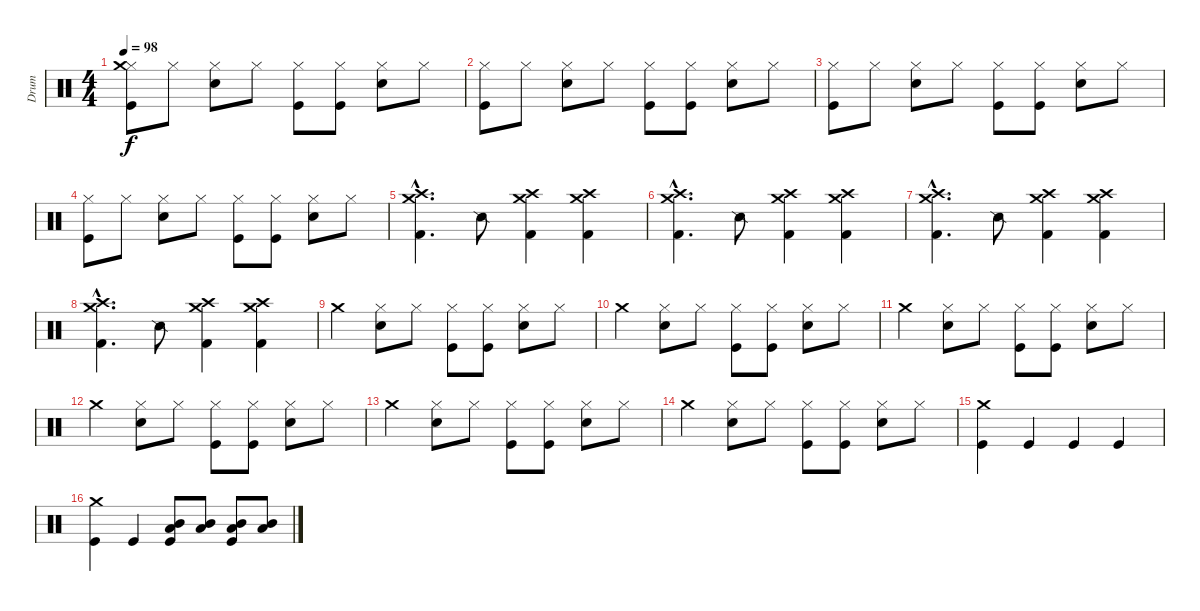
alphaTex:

\track ("Drum" "Drum") {instrument percussion}
\staff {score}
\articulation defaults
\ts (4 4)
\tempo 98
\clef neutral
\ks c
("Hi-Hat (closed)" "Kick (hit)" "Crash medium (hit)").8{dy f} "Hi-Hat (closed)".8 ("Hi-Hat (closed)" "Snare (hit) 2").8 "Hi-Hat (closed)".8 ("Hi-Hat (closed)" "Kick (hit)").8 ("Hi-Hat (closed)" "Kick (hit)").8 ("Hi-Hat (closed)" "Snare (hit) 2").8 "Hi-Hat (closed)".8 |
("Hi-Hat (closed)" "Kick (hit)").8 "Hi-Hat (closed)".8 ("Hi-Hat (closed)" "Snare (hit) 2").8 "Hi-Hat (closed)".8 ("Hi-Hat (closed)" "Kick (hit)").8 ("Hi-Hat (closed)" "Kick (hit)").8 ("Hi-Hat (closed)" "Snare (hit) 2").8 "Hi-Hat (closed)".8 |
("Hi-Hat (closed)" "Kick (hit)").8 "Hi-Hat (closed)".8 ("Hi-Hat (closed)" "Snare (hit) 2").8 "Hi-Hat (closed)".8 ("Hi-Hat (closed)" "Kick (hit)").8 ("Hi-Hat (closed)" "Kick (hit)").8 ("Hi-Hat (closed)" "Snare (hit) 2").8 "Hi-Hat (closed)".8 |
("Hi-Hat (closed)" "Kick (hit)").8 "Hi-Hat (closed)".8 ("Hi-Hat (closed)" "Snare (hit) 2").8 "Hi-Hat (closed)".8 ("Hi-Hat (closed)" "Kick (hit)").8 ("Hi-Hat (closed)" "Kick (hit)").8 ("Hi-Hat (closed)" "Snare (hit) 2").8 "Hi-Hat (closed)".8 |
("Crash medium (hit)"{hac} "Kick (hit) 2"{hac} "Crash high (hit)"{hac}).4{d} "Snare (side stick) 2".8 ("Crash medium (hit)" "Kick (hit) 2" "Crash high (hit)").4 ("Crash medium (hit)" "Kick (hit) 2" "Crash high (hit)").4 |
("Crash medium (hit)"{hac} "Kick (hit) 2"{hac} "Crash high (hit)"{hac}).4{d} "Snare (side stick) 2".8 ("Crash medium (hit)" "Kick (hit) 2" "Crash high (hit)").4 ("Crash medium (hit)" "Kick (hit) 2" "Crash high (hit)").4 |
("Crash medium (hit)"{hac} "Kick (hit) 2"{hac} "Crash high (hit)"{hac}).4{d} "Snare (side stick) 2".8 ("Crash medium (hit)" "Kick (hit) 2" "Crash high (hit)").4 ("Crash medium (hit)" "Kick (hit) 2" "Crash high (hit)").4 |
("Crash medium (hit)"{hac} "Kick (hit) 2"{hac} "Crash high (hit)"{hac}).4{d} "Snare (side stick) 2".8 ("Crash medium (hit)" "Kick (hit) 2" "Crash high (hit)").4 ("Crash medium (hit)" "Kick (hit) 2" "Crash high (hit)").4 |
"Crash medium (hit)".4 ("Hi-Hat (closed)" "Electric Snare (hit)").8 "Hi-Hat (closed)".8 ("Hi-Hat (closed)" "Kick (hit)").8 ("Hi-Hat (closed)" "Kick (hit)").8 ("Hi-Hat (closed)" "Electric Snare (hit)").8 "Hi-Hat (closed)".8 |
"Crash medium (hit)".4 ("Hi-Hat (closed)" "Electric Snare (hit)").8 "Hi-Hat (closed)".8 ("Hi-Hat (closed)" "Kick (hit)").8 ("Hi-Hat (closed)" "Kick (hit)").8 ("Hi-Hat (closed)" "Electric Snare (hit)").8 "Hi-Hat (closed)".8 |
"Crash medium (hit)".4 ("Hi-Hat (closed)" "Electric Snare (hit)").8 "Hi-Hat (closed)".8 ("Hi-Hat (closed)" "Kick (hit)").8 ("Hi-Hat (closed)" "Kick (hit)").8 ("Hi-Hat (closed)" "Electric Snare (hit)").8 "Hi-Hat (closed)".8 |
"Crash medium (hit)".4 ("Hi-Hat (closed)" "Electric Snare (hit)").8 "Hi-Hat (closed)".8 ("Hi-Hat (closed)" "Kick (hit)").8 ("Hi-Hat (closed)" "Kick (hit)").8 ("Hi-Hat (closed)" "Electric Snare (hit)").8 "Hi-Hat (closed)".8 |
"Crash medium (hit)".4 ("Hi-Hat (closed)" "Electric Snare (hit)").8 "Hi-Hat (closed)".8 ("Hi-Hat (closed)" "Kick (hit)").8 ("Hi-Hat (closed)" "Kick (hit)").8 ("Hi-Hat (closed)" "Electric Snare (hit)").8 "Hi-Hat (closed)".8 |
"Crash medium (hit)".4 ("Hi-Hat (closed)" "Electric Snare (hit)").8 "Hi-Hat (closed)".8 ("Hi-Hat (closed)" "Kick (hit)").8 ("Hi-Hat (closed)" "Kick (hit)").8 ("Hi-Hat (closed)" "Electric Snare (hit)").8 "Hi-Hat (closed)".8 |
("Crash medium (hit)" "Kick (hit)").4 "Kick (hit)".4 "Kick (hit)".4 "Kick (hit)".4 |
("Crash medium (hit)" "Kick (hit)").4 "Kick (hit)".4 ("Kick (hit)" "Low Tom (hit)" "Mid Tom (hit)").8 ("Low Tom (hit)" "Mid Tom (hit)").8 ("Kick (hit)" "Low Tom (hit)" "Mid Tom (hit)").8 ("Low Tom (hit)" "Mid Tom (hit)").8
